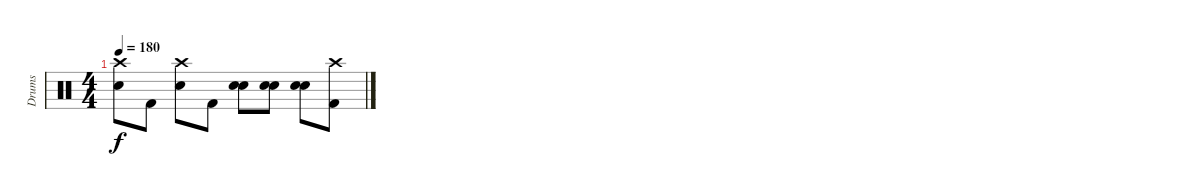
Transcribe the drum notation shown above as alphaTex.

\track ("Drums" "Drums") {instrument percussion}
\staff {score}
\articulation defaults
\ts (4 4)
\tempo 180
\clef neutral
\ks c
("Crash high (hit)" "Snare (hit) 2").8{dy f} "Kick (hit) 2".8 ("Crash high (hit)" "Snare (hit) 2").8 "Kick (hit) 2".8 ("Snare (hit) 2" "Snare (hit) 2").8 ("Snare (hit) 2" "Snare (hit) 2").8 ("Snare (hit) 2" "Snare (hit) 2").8 ("Crash high (hit)" "Kick (hit) 2").8
